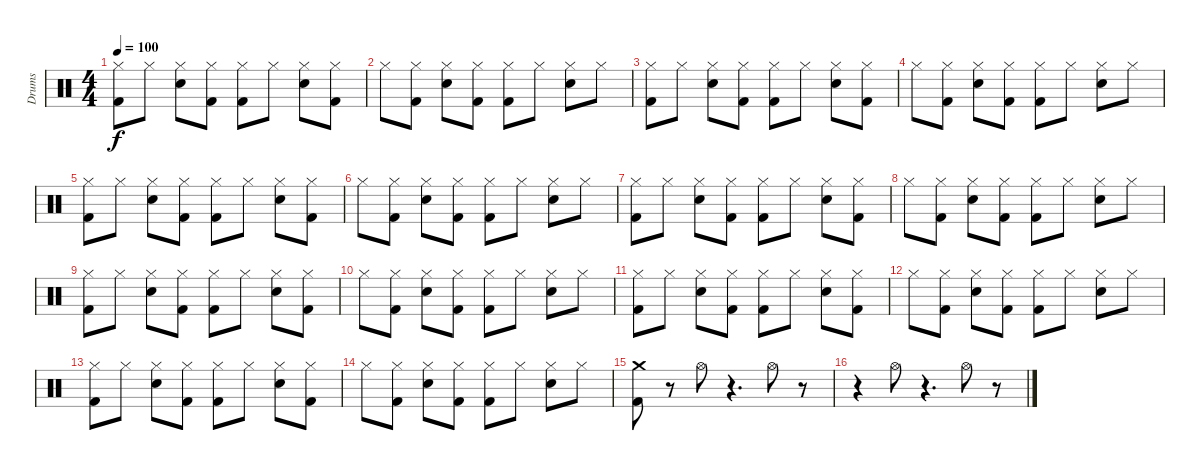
\track ("Drums" "Drums") {instrument percussion}
\staff {score}
\articulation defaults
\ts (4 4)
\tempo 100
\clef neutral
\ks c
("Hi-Hat (closed)" "Kick (hit) 2").8{dy f} "Hi-Hat (closed)".8 ("Hi-Hat (closed)" "Snare (hit) 2").8 ("Hi-Hat (closed)" "Kick (hit) 2").8 ("Hi-Hat (closed)" "Kick (hit) 2").8 "Hi-Hat (closed)".8 ("Hi-Hat (closed)" "Snare (hit) 2").8 ("Hi-Hat (closed)" "Kick (hit) 2").8 |
"Hi-Hat (closed)".8 ("Hi-Hat (closed)" "Kick (hit) 2").8 ("Hi-Hat (closed)" "Snare (hit) 2").8 ("Hi-Hat (closed)" "Kick (hit) 2").8 ("Hi-Hat (closed)" "Kick (hit) 2").8 "Hi-Hat (closed)".8 ("Hi-Hat (closed)" "Snare (hit) 2").8 "Hi-Hat (closed)".8 |
("Hi-Hat (closed)" "Kick (hit) 2").8 "Hi-Hat (closed)".8 ("Hi-Hat (closed)" "Snare (hit) 2").8 ("Hi-Hat (closed)" "Kick (hit) 2").8 ("Hi-Hat (closed)" "Kick (hit) 2").8 "Hi-Hat (closed)".8 ("Hi-Hat (closed)" "Snare (hit) 2").8 ("Hi-Hat (closed)" "Kick (hit) 2").8 |
"Hi-Hat (closed)".8 ("Hi-Hat (closed)" "Kick (hit) 2").8 ("Hi-Hat (closed)" "Snare (hit) 2").8 ("Hi-Hat (closed)" "Kick (hit) 2").8 ("Hi-Hat (closed)" "Kick (hit) 2").8 "Hi-Hat (closed)".8 ("Hi-Hat (closed)" "Snare (hit) 2").8 "Hi-Hat (closed)".8 |
("Hi-Hat (closed)" "Kick (hit) 2").8 "Hi-Hat (closed)".8 ("Hi-Hat (closed)" "Snare (hit) 2").8 ("Hi-Hat (closed)" "Kick (hit) 2").8 ("Hi-Hat (closed)" "Kick (hit) 2").8 "Hi-Hat (closed)".8 ("Hi-Hat (closed)" "Snare (hit) 2").8 ("Hi-Hat (closed)" "Kick (hit) 2").8 |
"Hi-Hat (closed)".8 ("Hi-Hat (closed)" "Kick (hit) 2").8 ("Hi-Hat (closed)" "Snare (hit) 2").8 ("Hi-Hat (closed)" "Kick (hit) 2").8 ("Hi-Hat (closed)" "Kick (hit) 2").8 "Hi-Hat (closed)".8 ("Hi-Hat (closed)" "Snare (hit) 2").8 "Hi-Hat (closed)".8 |
("Hi-Hat (closed)" "Kick (hit) 2").8 "Hi-Hat (closed)".8 ("Hi-Hat (closed)" "Snare (hit) 2").8 ("Hi-Hat (closed)" "Kick (hit) 2").8 ("Hi-Hat (closed)" "Kick (hit) 2").8 "Hi-Hat (closed)".8 ("Hi-Hat (closed)" "Snare (hit) 2").8 ("Hi-Hat (closed)" "Kick (hit) 2").8 |
"Hi-Hat (closed)".8 ("Hi-Hat (closed)" "Kick (hit) 2").8 ("Hi-Hat (closed)" "Snare (hit) 2").8 ("Hi-Hat (closed)" "Kick (hit) 2").8 ("Hi-Hat (closed)" "Kick (hit) 2").8 "Hi-Hat (closed)".8 ("Hi-Hat (closed)" "Snare (hit) 2").8 "Hi-Hat (closed)".8 |
("Hi-Hat (closed)" "Kick (hit) 2").8 "Hi-Hat (closed)".8 ("Hi-Hat (closed)" "Snare (hit) 2").8 ("Hi-Hat (closed)" "Kick (hit) 2").8 ("Hi-Hat (closed)" "Kick (hit) 2").8 "Hi-Hat (closed)".8 ("Hi-Hat (closed)" "Snare (hit) 2").8 ("Hi-Hat (closed)" "Kick (hit) 2").8 |
"Hi-Hat (closed)".8 ("Hi-Hat (closed)" "Kick (hit) 2").8 ("Hi-Hat (closed)" "Snare (hit) 2").8 ("Hi-Hat (closed)" "Kick (hit) 2").8 ("Hi-Hat (closed)" "Kick (hit) 2").8 "Hi-Hat (closed)".8 ("Hi-Hat (closed)" "Snare (hit) 2").8 "Hi-Hat (closed)".8 |
("Hi-Hat (closed)" "Kick (hit) 2").8 "Hi-Hat (closed)".8 ("Hi-Hat (closed)" "Snare (hit) 2").8 ("Hi-Hat (closed)" "Kick (hit) 2").8 ("Hi-Hat (closed)" "Kick (hit) 2").8 "Hi-Hat (closed)".8 ("Hi-Hat (closed)" "Snare (hit) 2").8 ("Hi-Hat (closed)" "Kick (hit) 2").8 |
"Hi-Hat (closed)".8 ("Hi-Hat (closed)" "Kick (hit) 2").8 ("Hi-Hat (closed)" "Snare (hit) 2").8 ("Hi-Hat (closed)" "Kick (hit) 2").8 ("Hi-Hat (closed)" "Kick (hit) 2").8 "Hi-Hat (closed)".8 ("Hi-Hat (closed)" "Snare (hit) 2").8 "Hi-Hat (closed)".8 |
("Hi-Hat (closed)" "Kick (hit) 2").8 "Hi-Hat (closed)".8 ("Hi-Hat (closed)" "Snare (hit) 2").8 ("Hi-Hat (closed)" "Kick (hit) 2").8 ("Hi-Hat (closed)" "Kick (hit) 2").8 "Hi-Hat (closed)".8 ("Hi-Hat (closed)" "Snare (hit) 2").8 ("Hi-Hat (closed)" "Kick (hit) 2").8 |
"Hi-Hat (closed)".8 ("Hi-Hat (closed)" "Kick (hit) 2").8 ("Hi-Hat (closed)" "Snare (hit) 2").8 ("Hi-Hat (closed)" "Kick (hit) 2").8 ("Hi-Hat (closed)" "Kick (hit) 2").8 "Hi-Hat (closed)".8 ("Hi-Hat (closed)" "Snare (hit) 2").8 "Hi-Hat (closed)".8 |
("Kick (hit) 2" "Crash medium (hit)").8 r.8 "Hi-Hat (open)".8 r.4{d} "Hi-Hat (open)".8 r.8 |
r.4 "Hi-Hat (open)".8 r.4{d} "Hi-Hat (open)".8 r.8
